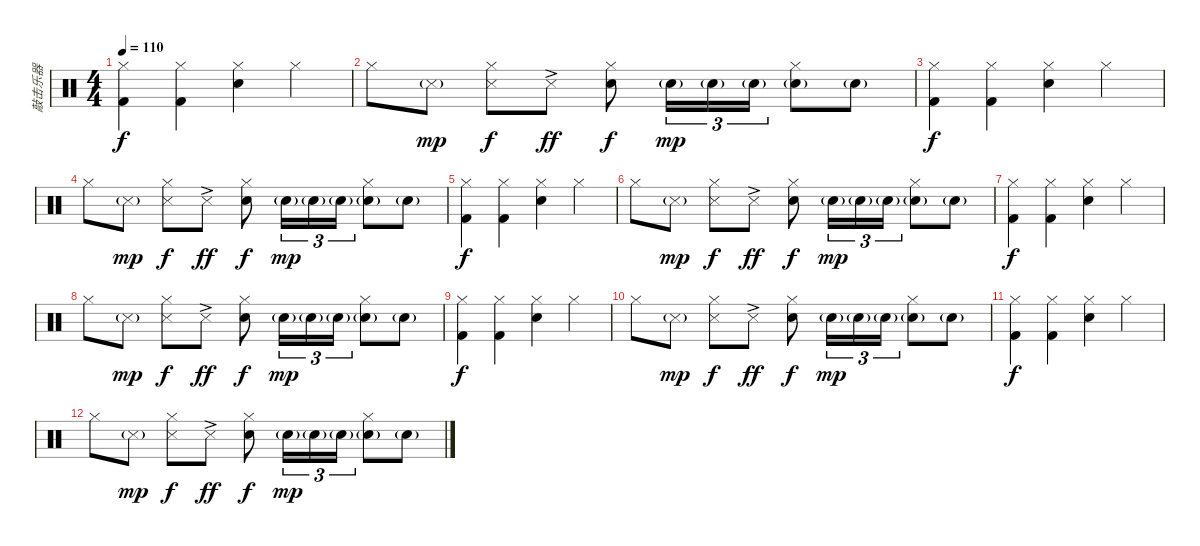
\track ("敲击乐器" "敲击乐器") {instrument percussion}
\staff {score}
\articulation defaults
\ts (4 4)
\tempo 110
\clef neutral
\ks c
("Kick (hit) 2" "Hi-Hat (closed)").4{dy f} ("Kick (hit) 2" "Hi-Hat (closed)").4 ("Snare (hit) 2" "Hi-Hat (closed)").4 "Hi-Hat (closed)".4 |
"Hi-Hat (closed)".8 "Metronome (hit)"{g}.8{dy mp} ("Metronome (hit)" "Hi-Hat (closed)").8{dy f} "Metronome (hit)"{ac}.8{dy ff} ("Snare (hit) 2" "Hi-Hat (closed)").8{dy f} "Electric Snare (hit)"{g}.16{tu (3 2) dy mp} "Electric Snare (hit)"{g}.16{tu (3 2)} "Electric Snare (hit)"{g}.16{tu (3 2)} ("Electric Snare (hit)"{g} "Hi-Hat (closed)").8 "Electric Snare (hit)"{g}.8 |
("Kick (hit) 2" "Hi-Hat (closed)").4{dy f} ("Kick (hit) 2" "Hi-Hat (closed)").4 ("Snare (hit) 2" "Hi-Hat (closed)").4 "Hi-Hat (closed)".4 |
"Hi-Hat (closed)".8 "Metronome (hit)"{g}.8{dy mp} ("Metronome (hit)" "Hi-Hat (closed)").8{dy f} "Metronome (hit)"{ac}.8{dy ff} ("Snare (hit) 2" "Hi-Hat (closed)").8{dy f} "Electric Snare (hit)"{g}.16{tu (3 2) dy mp} "Electric Snare (hit)"{g}.16{tu (3 2)} "Electric Snare (hit)"{g}.16{tu (3 2)} ("Electric Snare (hit)"{g} "Hi-Hat (closed)").8 "Electric Snare (hit)"{g}.8 |
("Kick (hit) 2" "Hi-Hat (closed)").4{dy f} ("Kick (hit) 2" "Hi-Hat (closed)").4 ("Snare (hit) 2" "Hi-Hat (closed)").4 "Hi-Hat (closed)".4 |
"Hi-Hat (closed)".8 "Metronome (hit)"{g}.8{dy mp} ("Metronome (hit)" "Hi-Hat (closed)").8{dy f} "Metronome (hit)"{ac}.8{dy ff} ("Snare (hit) 2" "Hi-Hat (closed)").8{dy f} "Electric Snare (hit)"{g}.16{tu (3 2) dy mp} "Electric Snare (hit)"{g}.16{tu (3 2)} "Electric Snare (hit)"{g}.16{tu (3 2)} ("Electric Snare (hit)"{g} "Hi-Hat (closed)").8 "Electric Snare (hit)"{g}.8 |
("Kick (hit) 2" "Hi-Hat (closed)").4{dy f} ("Kick (hit) 2" "Hi-Hat (closed)").4 ("Snare (hit) 2" "Hi-Hat (closed)").4 "Hi-Hat (closed)".4 |
"Hi-Hat (closed)".8 "Metronome (hit)"{g}.8{dy mp} ("Metronome (hit)" "Hi-Hat (closed)").8{dy f} "Metronome (hit)"{ac}.8{dy ff} ("Snare (hit) 2" "Hi-Hat (closed)").8{dy f} "Electric Snare (hit)"{g}.16{tu (3 2) dy mp} "Electric Snare (hit)"{g}.16{tu (3 2)} "Electric Snare (hit)"{g}.16{tu (3 2)} ("Electric Snare (hit)"{g} "Hi-Hat (closed)").8 "Electric Snare (hit)"{g}.8 |
("Kick (hit) 2" "Hi-Hat (closed)").4{dy f} ("Kick (hit) 2" "Hi-Hat (closed)").4 ("Snare (hit) 2" "Hi-Hat (closed)").4 "Hi-Hat (closed)".4 |
"Hi-Hat (closed)".8 "Metronome (hit)"{g}.8{dy mp} ("Metronome (hit)" "Hi-Hat (closed)").8{dy f} "Metronome (hit)"{ac}.8{dy ff} ("Snare (hit) 2" "Hi-Hat (closed)").8{dy f} "Electric Snare (hit)"{g}.16{tu (3 2) dy mp} "Electric Snare (hit)"{g}.16{tu (3 2)} "Electric Snare (hit)"{g}.16{tu (3 2)} ("Electric Snare (hit)"{g} "Hi-Hat (closed)").8 "Electric Snare (hit)"{g}.8 |
("Kick (hit) 2" "Hi-Hat (closed)").4{dy f} ("Kick (hit) 2" "Hi-Hat (closed)").4 ("Snare (hit) 2" "Hi-Hat (closed)").4 "Hi-Hat (closed)".4 |
"Hi-Hat (closed)".8 "Metronome (hit)"{g}.8{dy mp} ("Metronome (hit)" "Hi-Hat (closed)").8{dy f} "Metronome (hit)"{ac}.8{dy ff} ("Snare (hit) 2" "Hi-Hat (closed)").8{dy f} "Electric Snare (hit)"{g}.16{tu (3 2) dy mp} "Electric Snare (hit)"{g}.16{tu (3 2)} "Electric Snare (hit)"{g}.16{tu (3 2)} ("Electric Snare (hit)"{g} "Hi-Hat (closed)").8 "Electric Snare (hit)"{g}.8
